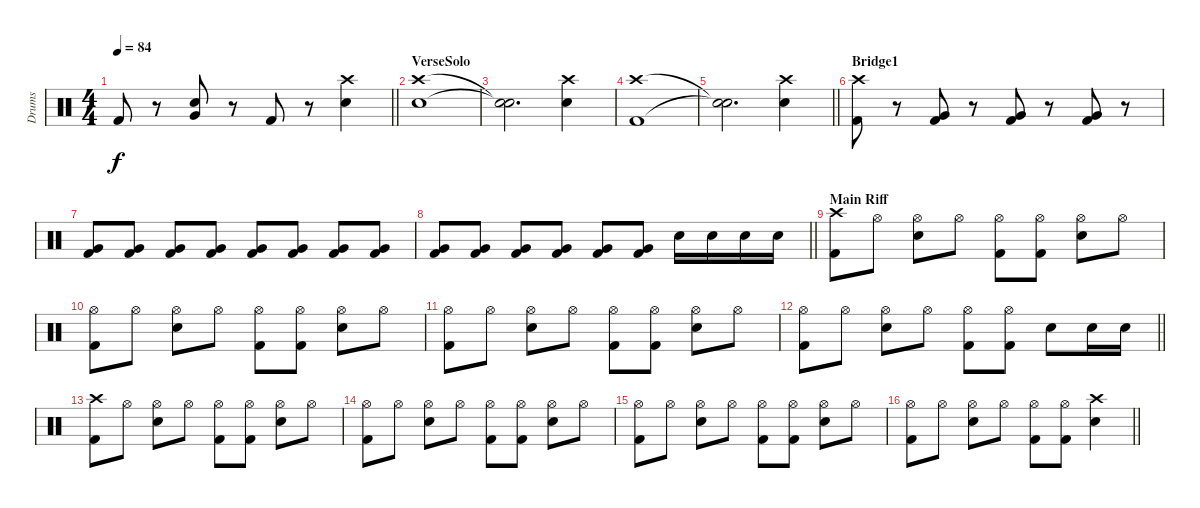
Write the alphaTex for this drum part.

\track ("Drums" "Drums") {instrument percussion}
\staff {score}
\articulation defaults
\ts (4 4)
\tempo 84
\clef neutral
\barLineRight lightlight
\ks c "Kick (hit) 2".8{dy f}
r.8 ("Very Low Tom (hit)" "Snare (hit) 2").8 r.8 "Kick (hit) 2".8 r.8 ("Crash high (hit)" "Snare (hit) 2").4 |
\section ("" "VerseSolo")
("Crash high (hit)" "Snare (hit) 2").1 |
("Snare (hit)"{t} "Snare (hit)"{t}).2{d} ("Crash high (hit)" "Snare (hit) 2").4 |
("Crash high (hit)" "Kick (hit) 2").1 |
\barLineRight lightlight
("Snare (hit)"{t} "Snare (hit)"{t}).2{d} ("Crash high (hit)" "Snare (hit) 2").4 |
\section ("" "Bridge1")
("Crash high (hit)" "Kick (hit) 2").8 r.8 ("Very Low Tom (hit)" "Kick (hit) 2").8 r.8 ("Very Low Tom (hit)" "Kick (hit) 2").8 r.8 ("Very Low Tom (hit)" "Kick (hit) 2").8 r.8 |
("Very Low Tom (hit)" "Kick (hit) 2").8 ("Very Low Tom (hit)" "Kick (hit) 2").8 ("Very Low Tom (hit)" "Kick (hit) 2").8 ("Very Low Tom (hit)" "Kick (hit) 2").8 ("Very Low Tom (hit)" "Kick (hit) 2").8 ("Very Low Tom (hit)" "Kick (hit) 2").8 ("Very Low Tom (hit)" "Kick (hit) 2").8 ("Very Low Tom (hit)" "Kick (hit) 2").8 |
\barLineRight lightlight
("Very Low Tom (hit)" "Kick (hit) 2").8 ("Very Low Tom (hit)" "Kick (hit) 2").8 ("Very Low Tom (hit)" "Kick (hit) 2").8 ("Very Low Tom (hit)" "Kick (hit) 2").8 ("Very Low Tom (hit)" "Kick (hit) 2").8 ("Very Low Tom (hit)" "Kick (hit) 2").8 "Snare (hit) 2".16 "Snare (hit) 2".16 "Snare (hit) 2".16 "Snare (hit) 2".16 |
\section ("" "Main Riff")
("Crash high (hit)" "Kick (hit) 2").8 "Hi-Hat (open)".8 ("Hi-Hat (open)" "Snare (hit) 2").8 "Hi-Hat (open)".8 ("Hi-Hat (open)" "Kick (hit) 2").8 ("Hi-Hat (open)" "Kick (hit) 2").8 ("Hi-Hat (open)" "Snare (hit) 2").8 "Hi-Hat (open)".8 |
("Hi-Hat (open)" "Kick (hit) 2").8 "Hi-Hat (open)".8 ("Hi-Hat (open)" "Snare (hit) 2").8 "Hi-Hat (open)".8 ("Hi-Hat (open)" "Kick (hit) 2").8 ("Hi-Hat (open)" "Kick (hit) 2").8 ("Hi-Hat (open)" "Snare (hit) 2").8 "Hi-Hat (open)".8 |
("Hi-Hat (open)" "Kick (hit) 2").8 "Hi-Hat (open)".8 ("Hi-Hat (open)" "Snare (hit) 2").8 "Hi-Hat (open)".8 ("Hi-Hat (open)" "Kick (hit) 2").8 ("Hi-Hat (open)" "Kick (hit) 2").8 ("Hi-Hat (open)" "Snare (hit) 2").8 "Hi-Hat (open)".8 |
\barLineRight lightlight
("Hi-Hat (open)" "Kick (hit) 2").8 "Hi-Hat (open)".8 ("Hi-Hat (open)" "Snare (hit) 2").8 "Hi-Hat (open)".8 ("Hi-Hat (open)" "Kick (hit) 2").8 ("Hi-Hat (open)" "Kick (hit) 2").8 "Snare (hit) 2".8 "Snare (hit) 2".16 "Snare (hit) 2".16 |
("Crash high (hit)" "Kick (hit) 2").8 "Hi-Hat (open)".8 ("Hi-Hat (open)" "Snare (hit) 2").8 "Hi-Hat (open)".8 ("Hi-Hat (open)" "Kick (hit) 2").8 ("Hi-Hat (open)" "Kick (hit) 2").8 ("Hi-Hat (open)" "Snare (hit) 2").8 "Hi-Hat (open)".8 |
("Hi-Hat (open)" "Kick (hit) 2").8 "Hi-Hat (open)".8 ("Hi-Hat (open)" "Snare (hit) 2").8 "Hi-Hat (open)".8 ("Hi-Hat (open)" "Kick (hit) 2").8 ("Hi-Hat (open)" "Kick (hit) 2").8 ("Hi-Hat (open)" "Snare (hit) 2").8 "Hi-Hat (open)".8 |
("Hi-Hat (open)" "Kick (hit) 2").8 "Hi-Hat (open)".8 ("Hi-Hat (open)" "Snare (hit) 2").8 "Hi-Hat (open)".8 ("Hi-Hat (open)" "Kick (hit) 2").8 ("Hi-Hat (open)" "Kick (hit) 2").8 ("Hi-Hat (open)" "Snare (hit) 2").8 "Hi-Hat (open)".8 |
\barLineRight lightlight
("Hi-Hat (open)" "Kick (hit) 2").8 "Hi-Hat (open)".8 ("Hi-Hat (open)" "Snare (hit) 2").8 "Hi-Hat (open)".8 ("Hi-Hat (open)" "Kick (hit) 2").8 ("Hi-Hat (open)" "Kick (hit) 2").8 ("Crash high (hit)" "Snare (hit) 2").4
